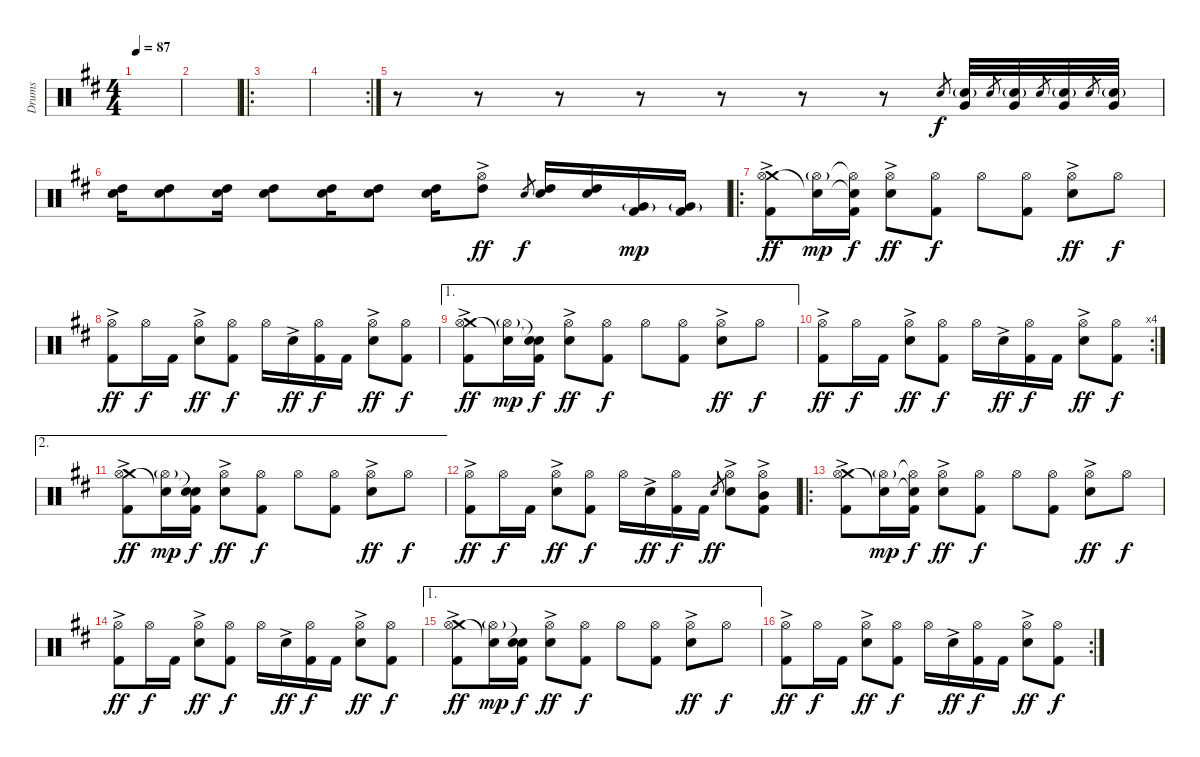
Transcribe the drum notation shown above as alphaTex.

\track ("Drums" "Drums") {instrument percussion}
\staff {score}
\articulation defaults
\ts (4 4)
\tempo 87
\clef neutral
\ks d
|
|
\ro
|
\rc 2
|
r.8 r.8 r.8 r.8 r.8 r.8 r.8 "Electric Snare (hit)".8{gr} ("Electric Snare (hit)"{g} "Very Low Tom (hit)").32 "Electric Snare (hit)".8{gr} ("Electric Snare (hit)"{g} "Very Low Tom (hit)").32 "Electric Snare (hit)".8{gr} ("Electric Snare (hit)"{g} "Very Low Tom (hit)").32 "Electric Snare (hit)".8{gr} ("Electric Snare (hit)"{g} "Very Low Tom (hit)").32 |
("Electric Snare (hit)" "High Tom (hit)").16{dy f} ("Electric Snare (hit)" "High Tom (hit)").8 ("Electric Snare (hit)" "High Tom (hit)").16 ("Electric Snare (hit)" "High Tom (hit)").8 ("Electric Snare (hit)" "High Tom (hit)").16 ("Electric Snare (hit)" "High Tom (hit)").8 ("Electric Snare (hit)" "High Tom (hit)").16 ("Hi-Hat (open)"{ac} "High Tom (hit)").8{dy ff} "Electric Snare (hit)".8{gr dy f} ("Electric Snare (hit)" "High Tom (hit)").16 ("Electric Snare (hit)" "High Tom (hit)").16 ("Very Low Tom (hit)"{g} "Kick (hit) 2").16{dy mp} ("Very Low Tom (hit)"{g} "Kick (hit) 2").16 |
\ro
("Crash medium (hit)" "Hi-Hat (open)" "Kick (hit) 2"{ac}).8{dy ff} ("Snare (hit)"{t} "Hi-Hat (open)"{g}).16{dy mp} ("Snare (hit)"{t} "Hi-Hat (open)"{t} "Kick (hit) 2").16{dy f} ("Hi-Hat (open)" "Electric Snare (hit)"{ac}).8{dy ff} ("Hi-Hat (open)" "Kick (hit) 2").8{dy f} "Hi-Hat (open)".8 ("Hi-Hat (open)" "Kick (hit) 2").8 ("Hi-Hat (open)" "Electric Snare (hit)"{ac}).8{dy ff} "Hi-Hat (open)".8{dy f} |
("Hi-Hat (open)" "Kick (hit) 2"{ac}).8{dy ff} "Hi-Hat (open)".16{dy f} "Kick (hit) 2".16 ("Hi-Hat (open)" "Electric Snare (hit)"{ac}).8{dy ff} ("Hi-Hat (open)" "Kick (hit) 2").8{dy f} "Hi-Hat (open)".16 "Electric Snare (hit)"{ac}.16{dy ff} ("Hi-Hat (open)" "Kick (hit) 2").16{dy f} "Kick (hit) 2".16 ("Hi-Hat (open)" "Electric Snare (hit)"{ac}).8{dy ff} ("Hi-Hat (open)" "Kick (hit) 2").8{dy f} |
\ae 1
("Crash medium (hit)" "Hi-Hat (open)" "Kick (hit) 2"{ac}).8{dy ff} ("Snare (hit)"{t} "Hi-Hat (open)"{g}).16{dy mp} ("Snare (hit)"{t} "Snare (hit)"{t} "Kick (hit) 2").16{dy f} ("Hi-Hat (open)" "Electric Snare (hit)"{ac}).8{dy ff} ("Hi-Hat (open)" "Kick (hit) 2").8{dy f} "Hi-Hat (open)".8 ("Hi-Hat (open)" "Kick (hit) 2").8 ("Hi-Hat (open)" "Electric Snare (hit)"{ac}).8{dy ff} "Hi-Hat (open)".8{dy f} |
\rc 4
("Hi-Hat (open)" "Kick (hit) 2"{ac}).8{dy ff} "Hi-Hat (open)".16{dy f} "Kick (hit) 2".16 ("Hi-Hat (open)" "Electric Snare (hit)"{ac}).8{dy ff} ("Hi-Hat (open)" "Kick (hit) 2").8{dy f} "Hi-Hat (open)".16 "Electric Snare (hit)"{ac}.16{dy ff} ("Hi-Hat (open)" "Kick (hit) 2").16{dy f} "Kick (hit) 2".16 ("Hi-Hat (open)" "Electric Snare (hit)"{ac}).8{dy ff} ("Hi-Hat (open)" "Kick (hit) 2").8{dy f} |
\ae 2
("Crash medium (hit)" "Hi-Hat (open)" "Kick (hit) 2"{ac}).8{dy ff} ("Snare (hit)"{t} "Hi-Hat (open)"{g}).16{dy mp} ("Snare (hit)"{t} "Snare (hit)"{t} "Kick (hit) 2").16{dy f} ("Hi-Hat (open)" "Electric Snare (hit)"{ac}).8{dy ff} ("Hi-Hat (open)" "Kick (hit) 2").8{dy f} "Hi-Hat (open)".8 ("Hi-Hat (open)" "Kick (hit) 2").8 ("Hi-Hat (open)" "Electric Snare (hit)"{ac}).8{dy ff} "Hi-Hat (open)".8{dy f} |
("Hi-Hat (open)" "Kick (hit) 2"{ac}).8{dy ff} "Hi-Hat (open)".16{dy f} "Kick (hit) 2".16 ("Hi-Hat (open)" "Electric Snare (hit)"{ac}).8{dy ff} ("Hi-Hat (open)" "Kick (hit) 2").8{dy f} "Hi-Hat (open)".16 "Electric Snare (hit)"{ac}.16{dy ff} ("Hi-Hat (open)" "Kick (hit) 2").16{dy f} "Kick (hit) 2".16 "Electric Snare (hit)".8{gr dy ff} ("Hi-Hat (open)" "Electric Snare (hit)"{ac}).8 ("Hi-Hat (open)" "Mid Tom (hit)"{ac} "Kick (hit) 2").8 |
\ro
("Crash medium (hit)" "Hi-Hat (open)" "Kick (hit) 2"{ac}).8 ("Snare (hit)"{t} "Hi-Hat (open)"{g}).16{dy mp} ("Snare (hit)"{t} "Hi-Hat (open)"{t} "Kick (hit) 2").16{dy f} ("Hi-Hat (open)" "Electric Snare (hit)"{ac}).8{dy ff} ("Hi-Hat (open)" "Kick (hit) 2").8{dy f} "Hi-Hat (open)".8 ("Hi-Hat (open)" "Kick (hit) 2").8 ("Hi-Hat (open)" "Electric Snare (hit)"{ac}).8{dy ff} "Hi-Hat (open)".8{dy f} |
("Hi-Hat (open)" "Kick (hit) 2"{ac}).8{dy ff} "Hi-Hat (open)".16{dy f} "Kick (hit) 2".16 ("Hi-Hat (open)" "Electric Snare (hit)"{ac}).8{dy ff} ("Hi-Hat (open)" "Kick (hit) 2").8{dy f} "Hi-Hat (open)".16 "Electric Snare (hit)"{ac}.16{dy ff} ("Hi-Hat (open)" "Kick (hit) 2").16{dy f} "Kick (hit) 2".16 ("Hi-Hat (open)" "Electric Snare (hit)"{ac}).8{dy ff} ("Hi-Hat (open)" "Kick (hit) 2").8{dy f} |
\ae 1
("Crash medium (hit)" "Hi-Hat (open)" "Kick (hit) 2"{ac}).8{dy ff} ("Snare (hit)"{t} "Hi-Hat (open)"{g}).16{dy mp} ("Snare (hit)"{t} "Snare (hit)"{t} "Kick (hit) 2").16{dy f} ("Hi-Hat (open)" "Electric Snare (hit)"{ac}).8{dy ff} ("Hi-Hat (open)" "Kick (hit) 2").8{dy f} "Hi-Hat (open)".8 ("Hi-Hat (open)" "Kick (hit) 2").8 ("Hi-Hat (open)" "Electric Snare (hit)"{ac}).8{dy ff} "Hi-Hat (open)".8{dy f} |
\rc 2
("Hi-Hat (open)" "Kick (hit) 2"{ac}).8{dy ff} "Hi-Hat (open)".16{dy f} "Kick (hit) 2".16 ("Hi-Hat (open)" "Electric Snare (hit)"{ac}).8{dy ff} ("Hi-Hat (open)" "Kick (hit) 2").8{dy f} "Hi-Hat (open)".16 "Electric Snare (hit)"{ac}.16{dy ff} ("Hi-Hat (open)" "Kick (hit) 2").16{dy f} "Kick (hit) 2".16 ("Hi-Hat (open)" "Electric Snare (hit)"{ac}).8{dy ff} ("Hi-Hat (open)" "Kick (hit) 2").8{dy f}
